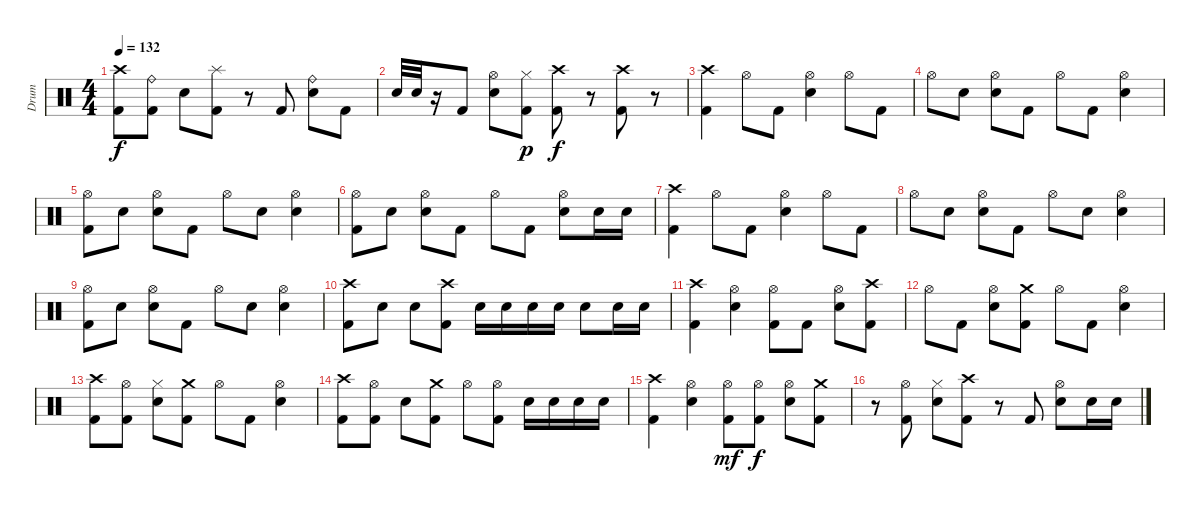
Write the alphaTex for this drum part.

\track ("Drum" "Drum") {instrument percussion}
\staff {score}
\articulation defaults
\ts (4 4)
\tempo 132
\clef neutral
\ks c
("Kick (hit) 2" "Crash high (hit)").8{dy f} ("Kick (hit) 2" "Ride (bell)").8 "Electric Snare (hit)".8 ("Kick (hit) 2" "Splash (hit)").8 r.8 "Kick (hit) 2".8 ("Electric Snare (hit)" "Ride (bell)").8 "Kick (hit) 2".8 |
"Electric Snare (hit)".32 "Electric Snare (hit)".32 r.16 "Kick (hit) 2".8 ("Electric Snare (hit)" "Hi-Hat (open)").8 ("Kick (hit) 2" "Hi-Hat (closed)").8{dy p} ("Kick (hit) 2" "Crash high (hit)").8{dy f} r.8 ("Crash high (hit)" "Kick (hit) 2").8 r.8 |
("Crash high (hit)" "Kick (hit) 2").4 "Hi-Hat (open)".8 "Kick (hit) 2".8 ("Electric Snare (hit)" "Hi-Hat (open)").4 "Hi-Hat (open)".8 "Kick (hit) 2".8 |
"Hi-Hat (open)".8 "Electric Snare (hit)".8 ("Electric Snare (hit)" "Hi-Hat (open)").8 "Kick (hit) 2".8 "Hi-Hat (open)".8 "Kick (hit) 2".8 ("Electric Snare (hit)" "Hi-Hat (open)").4 |
("Kick (hit) 2" "Hi-Hat (open)").8 "Electric Snare (hit)".8 ("Hi-Hat (open)" "Electric Snare (hit)").8 "Kick (hit) 2".8 "Hi-Hat (open)".8 "Electric Snare (hit)".8 ("Hi-Hat (open)" "Electric Snare (hit)").4 |
("Hi-Hat (open)" "Kick (hit) 2").8 "Electric Snare (hit)".8 ("Hi-Hat (open)" "Electric Snare (hit)").8 "Kick (hit) 2".8 "Hi-Hat (open)".8 "Kick (hit) 2".8 ("Hi-Hat (open)" "Electric Snare (hit)").8 "Electric Snare (hit)".16 "Electric Snare (hit)".16 |
("Kick (hit) 2" "Crash high (hit)").4 "Hi-Hat (open)".8 "Kick (hit) 2".8 ("Electric Snare (hit)" "Hi-Hat (open)").4 "Hi-Hat (open)".8 "Kick (hit) 2".8 |
"Hi-Hat (open)".8 "Electric Snare (hit)".8 ("Electric Snare (hit)" "Hi-Hat (open)").8 "Kick (hit) 2".8 "Hi-Hat (open)".8 "Electric Snare (hit)".8 ("Electric Snare (hit)" "Hi-Hat (open)").4 |
("Hi-Hat (open)" "Kick (hit) 2").8 "Electric Snare (hit)".8 ("Hi-Hat (open)" "Electric Snare (hit)").8 "Kick (hit) 2".8 "Hi-Hat (open)".8 "Electric Snare (hit)".8 ("Hi-Hat (open)" "Electric Snare (hit)").4 |
("Crash high (hit)" "Kick (hit) 2").8 "Electric Snare (hit)".8 "Electric Snare (hit)".8 ("Crash high (hit)" "Kick (hit) 2").8 "Electric Snare (hit)".16 "Electric Snare (hit)".16 "Electric Snare (hit)".16 "Electric Snare (hit)".16 "Electric Snare (hit)".8 "Electric Snare (hit)".16 "Electric Snare (hit)".16 |
("Crash high (hit)" "Kick (hit) 2").4 ("Hi-Hat (open)" "Electric Snare (hit)").4 ("Hi-Hat (open)" "Kick (hit) 2").8 "Kick (hit) 2".8 ("Electric Snare (hit)" "Hi-Hat (open)").8 ("Kick (hit) 2" "Crash high (hit)").8 |
"Hi-Hat (open)".8 "Kick (hit) 2".8 ("Hi-Hat (open)" "Electric Snare (hit)").8 ("Kick (hit) 2" "Crash medium (hit)").8 "Hi-Hat (open)".8 "Kick (hit) 2".8 ("Hi-Hat (open)" "Electric Snare (hit)").4 |
("Kick (hit) 2" "Crash high (hit)").8 ("Kick (hit) 2" "Hi-Hat (open)").8 ("Electric Snare (hit)" "Hi-Hat (closed)").8 ("Kick (hit) 2" "Crash medium (hit)").8 "Hi-Hat (open)".8 "Kick (hit) 2".8 ("Electric Snare (hit)" "Hi-Hat (open)").4 |
("Kick (hit) 2" "Crash high (hit)").8 ("Kick (hit) 2" "Hi-Hat (open)").8 "Electric Snare (hit)".8 ("Kick (hit) 2" "Crash medium (hit)").8 "Hi-Hat (open)".8 ("Kick (hit) 2" "Hi-Hat (open)").8 "Electric Snare (hit)".16 "Electric Snare (hit)".16 "Electric Snare (hit)".16 "Electric Snare (hit)".16 |
("Crash high (hit)" "Kick (hit) 2").4 ("Hi-Hat (open)" "Electric Snare (hit)").4 ("Kick (hit) 2" "Hi-Hat (open)").8{dy mf} ("Kick (hit) 2" "Hi-Hat (open)").8{dy f} ("Electric Snare (hit)" "Hi-Hat (open)").8 ("Kick (hit) 2" "Crash medium (hit)").8 |
r.8 ("Kick (hit) 2" "Hi-Hat (open)").8 ("Electric Snare (hit)" "Hi-Hat (closed)").8 ("Kick (hit) 2" "Crash high (hit)").8 r.8 "Kick (hit) 2".8 ("Electric Snare (hit)" "Hi-Hat (open)").8 "Electric Snare (hit)".16 "Electric Snare (hit)".16
